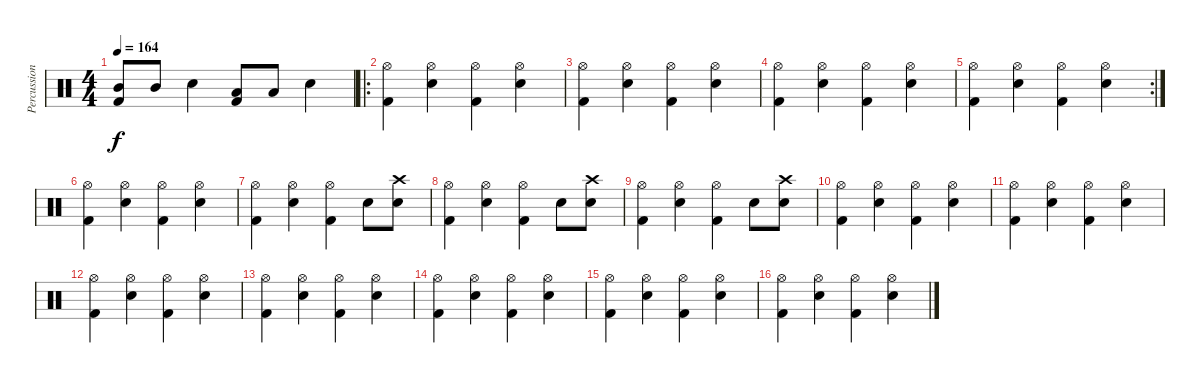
\track ("Percussions" "Percussion") {instrument percussion}
\staff {score}
\articulation defaults
\ts (4 4)
\tempo 164
\clef neutral
\ks c
("Mid Tom (hit)" "Kick (hit) 2").8{dy f} "Mid Tom (hit)".8 "Snare (hit) 2".4 ("Low Tom (hit)" "Kick (hit) 2").8 "Low Tom (hit)".8 "Snare (hit) 2".4 |
\ro
("Hi-Hat (open)" "Kick (hit) 2").4 ("Hi-Hat (open)" "Snare (hit) 2").4 ("Hi-Hat (open)" "Kick (hit) 2").4 ("Hi-Hat (open)" "Snare (hit) 2").4 |
("Hi-Hat (open)" "Kick (hit) 2").4 ("Hi-Hat (open)" "Snare (hit) 2").4 ("Hi-Hat (open)" "Kick (hit) 2").4 ("Hi-Hat (open)" "Snare (hit) 2").4 |
("Hi-Hat (open)" "Kick (hit) 2").4 ("Hi-Hat (open)" "Snare (hit) 2").4 ("Hi-Hat (open)" "Kick (hit) 2").4 ("Hi-Hat (open)" "Snare (hit) 2").4 |
\rc 2
("Hi-Hat (open)" "Kick (hit) 2").4 ("Hi-Hat (open)" "Snare (hit) 2").4 ("Hi-Hat (open)" "Kick (hit) 2").4 ("Hi-Hat (open)" "Snare (hit) 2").4 |
("Hi-Hat (open)" "Kick (hit) 2").4 ("Hi-Hat (open)" "Snare (hit) 2").4 ("Hi-Hat (open)" "Kick (hit) 2").4 ("Hi-Hat (open)" "Snare (hit) 2").4 |
("Hi-Hat (open)" "Kick (hit) 2").4 ("Hi-Hat (open)" "Snare (hit) 2").4 ("Hi-Hat (open)" "Kick (hit) 2").4 "Snare (hit) 2".8 ("Crash high (hit)" "Snare (hit) 2").8 |
("Hi-Hat (open)" "Kick (hit) 2").4 ("Hi-Hat (open)" "Snare (hit) 2").4 ("Hi-Hat (open)" "Kick (hit) 2").4 "Snare (hit) 2".8 ("Crash high (hit)" "Snare (hit) 2").8 |
("Hi-Hat (open)" "Kick (hit) 2").4 ("Hi-Hat (open)" "Snare (hit) 2").4 ("Hi-Hat (open)" "Kick (hit) 2").4 "Snare (hit) 2".8 ("Crash high (hit)" "Snare (hit) 2").8 |
("Hi-Hat (open)" "Kick (hit) 2").4 ("Hi-Hat (open)" "Snare (hit) 2").4 ("Hi-Hat (open)" "Kick (hit) 2").4 ("Hi-Hat (open)" "Snare (hit) 2").4 |
("Hi-Hat (open)" "Kick (hit) 2").4 ("Hi-Hat (open)" "Snare (hit) 2").4 ("Hi-Hat (open)" "Kick (hit) 2").4 ("Hi-Hat (open)" "Snare (hit) 2").4 |
("Hi-Hat (open)" "Kick (hit) 2").4 ("Hi-Hat (open)" "Snare (hit) 2").4 ("Hi-Hat (open)" "Kick (hit) 2").4 ("Hi-Hat (open)" "Snare (hit) 2").4 |
("Hi-Hat (open)" "Kick (hit) 2").4 ("Hi-Hat (open)" "Snare (hit) 2").4 ("Hi-Hat (open)" "Kick (hit) 2").4 ("Hi-Hat (open)" "Snare (hit) 2").4 |
("Hi-Hat (open)" "Kick (hit) 2").4 ("Hi-Hat (open)" "Snare (hit) 2").4 ("Hi-Hat (open)" "Kick (hit) 2").4 ("Hi-Hat (open)" "Snare (hit) 2").4 |
("Hi-Hat (open)" "Kick (hit) 2").4 ("Hi-Hat (open)" "Snare (hit) 2").4 ("Hi-Hat (open)" "Kick (hit) 2").4 ("Hi-Hat (open)" "Snare (hit) 2").4 |
("Hi-Hat (open)" "Kick (hit) 2").4 ("Hi-Hat (open)" "Snare (hit) 2").4 ("Hi-Hat (open)" "Kick (hit) 2").4 ("Hi-Hat (open)" "Snare (hit) 2").4
